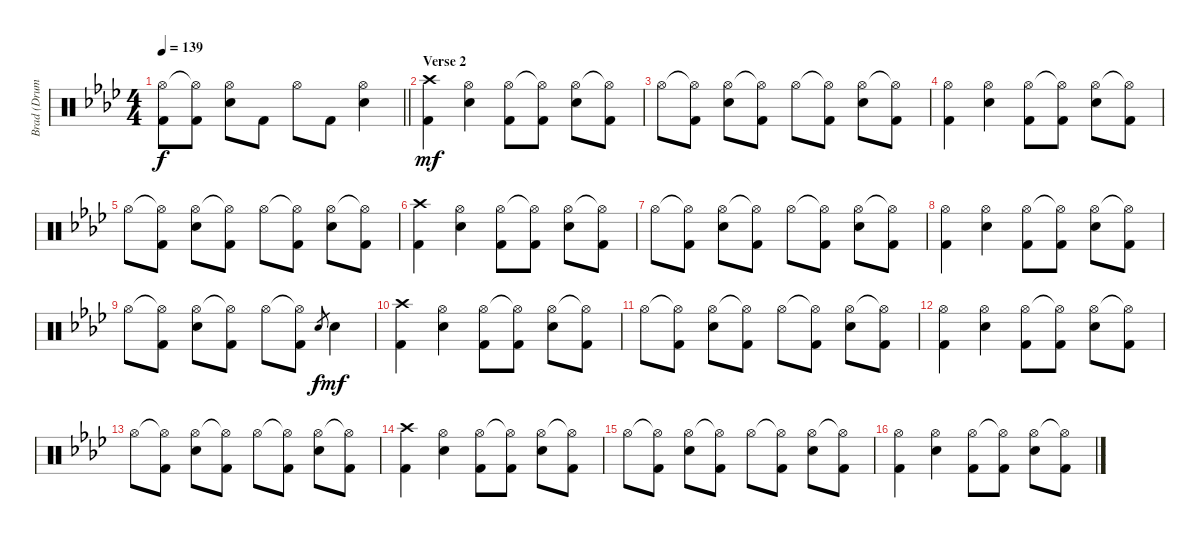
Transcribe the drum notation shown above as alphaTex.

\track ("Brad (Drums)" "Brad (Drum") {instrument percussion}
\staff {score}
\articulation defaults
\ts (4 4)
\tempo 139
\clef neutral
\barLineRight lightlight
\ks ab
("Hi-Hat (open)" "Kick (hit) 2").8{dy f} ("Hi-Hat (open)"{t} "Kick (hit) 2").8 ("Hi-Hat (open)" "Snare (hit) 2").8 "Kick (hit) 2".8 "Hi-Hat (open)".8 "Kick (hit) 2".8 ("Hi-Hat (open)" "Snare (hit) 2").4 |
\section ("" "Verse 2")
("Crash high (hit)" "Kick (hit) 2").4{dy mf} ("Hi-Hat (open)" "Snare (hit) 2").4 ("Hi-Hat (open)" "Kick (hit) 2").8 ("Hi-Hat (open)"{t} "Kick (hit) 2").8 ("Hi-Hat (open)" "Snare (hit) 2").8 ("Hi-Hat (open)"{t} "Kick (hit) 2").8 |
"Hi-Hat (open)".8 ("Hi-Hat (open)"{t} "Kick (hit) 2").8 ("Hi-Hat (open)" "Snare (hit) 2").8 ("Hi-Hat (open)"{t} "Kick (hit) 2").8 "Hi-Hat (open)".8 ("Hi-Hat (open)"{t} "Kick (hit) 2").8 ("Hi-Hat (open)" "Snare (hit) 2").8 ("Hi-Hat (open)"{t} "Kick (hit) 2").8 |
("Hi-Hat (open)" "Kick (hit) 2").4 ("Hi-Hat (open)" "Snare (hit) 2").4 ("Hi-Hat (open)" "Kick (hit) 2").8 ("Hi-Hat (open)"{t} "Kick (hit) 2").8 ("Hi-Hat (open)" "Snare (hit) 2").8 ("Hi-Hat (open)"{t} "Kick (hit) 2").8 |
"Hi-Hat (open)".8 ("Hi-Hat (open)"{t} "Kick (hit) 2").8 ("Hi-Hat (open)" "Snare (hit) 2").8 ("Hi-Hat (open)"{t} "Kick (hit) 2").8 "Hi-Hat (open)".8 ("Hi-Hat (open)"{t} "Kick (hit) 2").8 ("Hi-Hat (open)" "Snare (hit) 2").8 ("Hi-Hat (open)"{t} "Kick (hit) 2").8 |
("Crash high (hit)" "Kick (hit) 2").4 ("Hi-Hat (open)" "Snare (hit) 2").4 ("Hi-Hat (open)" "Kick (hit) 2").8 ("Hi-Hat (open)"{t} "Kick (hit) 2").8 ("Hi-Hat (open)" "Snare (hit) 2").8 ("Hi-Hat (open)"{t} "Kick (hit) 2").8 |
"Hi-Hat (open)".8 ("Hi-Hat (open)"{t} "Kick (hit) 2").8 ("Hi-Hat (open)" "Snare (hit) 2").8 ("Hi-Hat (open)"{t} "Kick (hit) 2").8 "Hi-Hat (open)".8 ("Hi-Hat (open)"{t} "Kick (hit) 2").8 ("Hi-Hat (open)" "Snare (hit) 2").8 ("Hi-Hat (open)"{t} "Kick (hit) 2").8 |
("Hi-Hat (open)" "Kick (hit) 2").4 ("Hi-Hat (open)" "Snare (hit) 2").4 ("Hi-Hat (open)" "Kick (hit) 2").8 ("Hi-Hat (open)"{t} "Kick (hit) 2").8 ("Hi-Hat (open)" "Snare (hit) 2").8 ("Hi-Hat (open)"{t} "Kick (hit) 2").8 |
"Hi-Hat (open)".8 ("Hi-Hat (open)"{t} "Kick (hit) 2").8 ("Hi-Hat (open)" "Snare (hit) 2").8 ("Hi-Hat (open)"{t} "Kick (hit) 2").8 "Hi-Hat (open)".8 ("Hi-Hat (open)"{t} "Kick (hit) 2").8 "Snare (hit) 2".8{gr dy f} "Snare (hit) 2".4{dy mf} |
("Crash high (hit)" "Kick (hit) 2").4 ("Hi-Hat (open)" "Snare (hit) 2").4 ("Hi-Hat (open)" "Kick (hit) 2").8 ("Hi-Hat (open)"{t} "Kick (hit) 2").8 ("Hi-Hat (open)" "Snare (hit) 2").8 ("Hi-Hat (open)"{t} "Kick (hit) 2").8 |
"Hi-Hat (open)".8 ("Hi-Hat (open)"{t} "Kick (hit) 2").8 ("Hi-Hat (open)" "Snare (hit) 2").8 ("Hi-Hat (open)"{t} "Kick (hit) 2").8 "Hi-Hat (open)".8 ("Hi-Hat (open)"{t} "Kick (hit) 2").8 ("Hi-Hat (open)" "Snare (hit) 2").8 ("Hi-Hat (open)"{t} "Kick (hit) 2").8 |
("Hi-Hat (open)" "Kick (hit) 2").4 ("Hi-Hat (open)" "Snare (hit) 2").4 ("Hi-Hat (open)" "Kick (hit) 2").8 ("Hi-Hat (open)"{t} "Kick (hit) 2").8 ("Hi-Hat (open)" "Snare (hit) 2").8 ("Hi-Hat (open)"{t} "Kick (hit) 2").8 |
"Hi-Hat (open)".8 ("Hi-Hat (open)"{t} "Kick (hit) 2").8 ("Hi-Hat (open)" "Snare (hit) 2").8 ("Hi-Hat (open)"{t} "Kick (hit) 2").8 "Hi-Hat (open)".8 ("Hi-Hat (open)"{t} "Kick (hit) 2").8 ("Hi-Hat (open)" "Snare (hit) 2").8 ("Hi-Hat (open)"{t} "Kick (hit) 2").8 |
("Crash high (hit)" "Kick (hit) 2").4 ("Hi-Hat (open)" "Snare (hit) 2").4 ("Hi-Hat (open)" "Kick (hit) 2").8 ("Hi-Hat (open)"{t} "Kick (hit) 2").8 ("Hi-Hat (open)" "Snare (hit) 2").8 ("Hi-Hat (open)"{t} "Kick (hit) 2").8 |
"Hi-Hat (open)".8 ("Hi-Hat (open)"{t} "Kick (hit) 2").8 ("Hi-Hat (open)" "Snare (hit) 2").8 ("Hi-Hat (open)"{t} "Kick (hit) 2").8 "Hi-Hat (open)".8 ("Hi-Hat (open)"{t} "Kick (hit) 2").8 ("Hi-Hat (open)" "Snare (hit) 2").8 ("Hi-Hat (open)"{t} "Kick (hit) 2").8 |
("Hi-Hat (open)" "Kick (hit) 2").4 ("Hi-Hat (open)" "Snare (hit) 2").4 ("Hi-Hat (open)" "Kick (hit) 2").8 ("Hi-Hat (open)"{t} "Kick (hit) 2").8 ("Hi-Hat (open)" "Snare (hit) 2").8 ("Hi-Hat (open)"{t} "Kick (hit) 2").8
